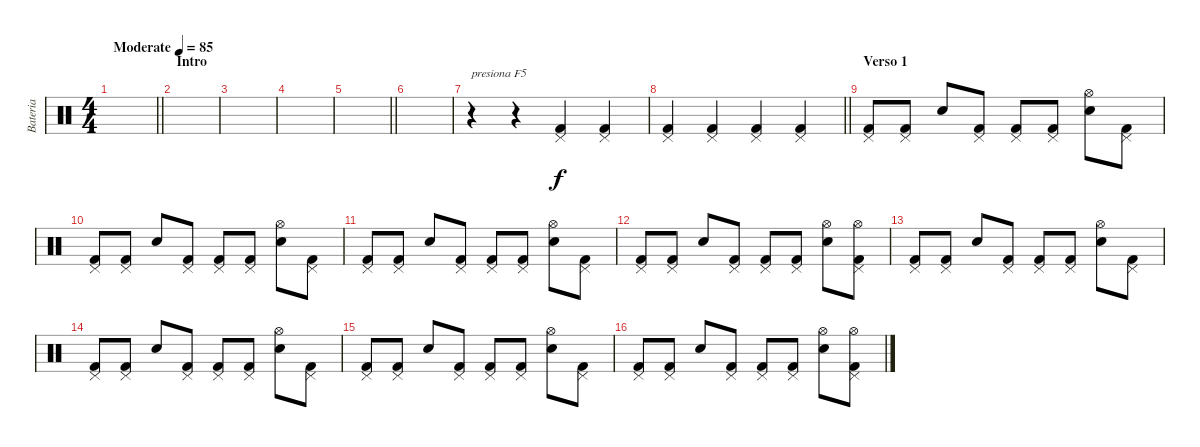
\track ("Bateria" "Bateria") {instrument percussion}
\staff {score}
\articulation defaults
\ts (4 4)
\tempo (85 "Moderate")
\clef neutral
\barLineRight lightlight
\ks c
|
\section ("" "Intro")
|
|
|
\barLineRight lightlight
|
|
r.4{txt "presiona F5"} r.4 ("Pedal Hi-Hat (hit)" "Kick (hit) 2").4 ("Pedal Hi-Hat (hit)" "Kick (hit) 2").4 |
\barLineRight lightlight
("Pedal Hi-Hat (hit)" "Kick (hit) 2").4 ("Pedal Hi-Hat (hit)" "Kick (hit) 2").4 ("Pedal Hi-Hat (hit)" "Kick (hit) 2").4 ("Pedal Hi-Hat (hit)" "Kick (hit) 2").4 |
\section ("" "Verso 1")
("Pedal Hi-Hat (hit)" "Kick (hit) 2").8 ("Pedal Hi-Hat (hit)" "Kick (hit) 2").8 "Snare (hit) 2".8 ("Pedal Hi-Hat (hit)" "Kick (hit) 2").8 ("Pedal Hi-Hat (hit)" "Kick (hit) 2").8 ("Pedal Hi-Hat (hit)" "Kick (hit) 2").8 ("Hi-Hat (open)" "Snare (hit) 2").8 ("Pedal Hi-Hat (hit)" "Kick (hit) 2").8 |
("Pedal Hi-Hat (hit)" "Kick (hit) 2").8 ("Pedal Hi-Hat (hit)" "Kick (hit) 2").8 "Snare (hit) 2".8 ("Pedal Hi-Hat (hit)" "Kick (hit) 2").8 ("Pedal Hi-Hat (hit)" "Kick (hit) 2").8 ("Pedal Hi-Hat (hit)" "Kick (hit) 2").8 ("Hi-Hat (open)" "Snare (hit) 2").8 ("Pedal Hi-Hat (hit)" "Kick (hit) 2").8 |
("Pedal Hi-Hat (hit)" "Kick (hit) 2").8 ("Pedal Hi-Hat (hit)" "Kick (hit) 2").8 "Snare (hit) 2".8 ("Pedal Hi-Hat (hit)" "Kick (hit) 2").8 ("Pedal Hi-Hat (hit)" "Kick (hit) 2").8 ("Pedal Hi-Hat (hit)" "Kick (hit) 2").8 ("Hi-Hat (open)" "Snare (hit) 2").8 ("Pedal Hi-Hat (hit)" "Kick (hit) 2").8 |
("Pedal Hi-Hat (hit)" "Kick (hit) 2").8 ("Pedal Hi-Hat (hit)" "Kick (hit) 2").8 "Snare (hit) 2".8 ("Pedal Hi-Hat (hit)" "Kick (hit) 2").8 ("Pedal Hi-Hat (hit)" "Kick (hit) 2").8 ("Pedal Hi-Hat (hit)" "Kick (hit) 2").8 ("Hi-Hat (open)" "Snare (hit) 2").8 ("Hi-Hat (open)" "Pedal Hi-Hat (hit)" "Kick (hit) 2").8 |
("Pedal Hi-Hat (hit)" "Kick (hit) 2").8 ("Pedal Hi-Hat (hit)" "Kick (hit) 2").8 "Snare (hit) 2".8 ("Pedal Hi-Hat (hit)" "Kick (hit) 2").8 ("Pedal Hi-Hat (hit)" "Kick (hit) 2").8 ("Pedal Hi-Hat (hit)" "Kick (hit) 2").8 ("Hi-Hat (open)" "Snare (hit) 2").8 ("Pedal Hi-Hat (hit)" "Kick (hit) 2").8 |
("Pedal Hi-Hat (hit)" "Kick (hit) 2").8 ("Pedal Hi-Hat (hit)" "Kick (hit) 2").8 "Snare (hit) 2".8 ("Pedal Hi-Hat (hit)" "Kick (hit) 2").8 ("Pedal Hi-Hat (hit)" "Kick (hit) 2").8 ("Pedal Hi-Hat (hit)" "Kick (hit) 2").8 ("Hi-Hat (open)" "Snare (hit) 2").8 ("Pedal Hi-Hat (hit)" "Kick (hit) 2").8 |
("Pedal Hi-Hat (hit)" "Kick (hit) 2").8 ("Pedal Hi-Hat (hit)" "Kick (hit) 2").8 "Snare (hit) 2".8 ("Pedal Hi-Hat (hit)" "Kick (hit) 2").8 ("Pedal Hi-Hat (hit)" "Kick (hit) 2").8 ("Pedal Hi-Hat (hit)" "Kick (hit) 2").8 ("Hi-Hat (open)" "Snare (hit) 2").8 ("Pedal Hi-Hat (hit)" "Kick (hit) 2").8 |
("Pedal Hi-Hat (hit)" "Kick (hit) 2").8 ("Pedal Hi-Hat (hit)" "Kick (hit) 2").8 "Snare (hit) 2".8 ("Pedal Hi-Hat (hit)" "Kick (hit) 2").8 ("Pedal Hi-Hat (hit)" "Kick (hit) 2").8 ("Pedal Hi-Hat (hit)" "Kick (hit) 2").8 ("Hi-Hat (open)" "Snare (hit) 2").8 ("Hi-Hat (open)" "Pedal Hi-Hat (hit)" "Kick (hit) 2").8
